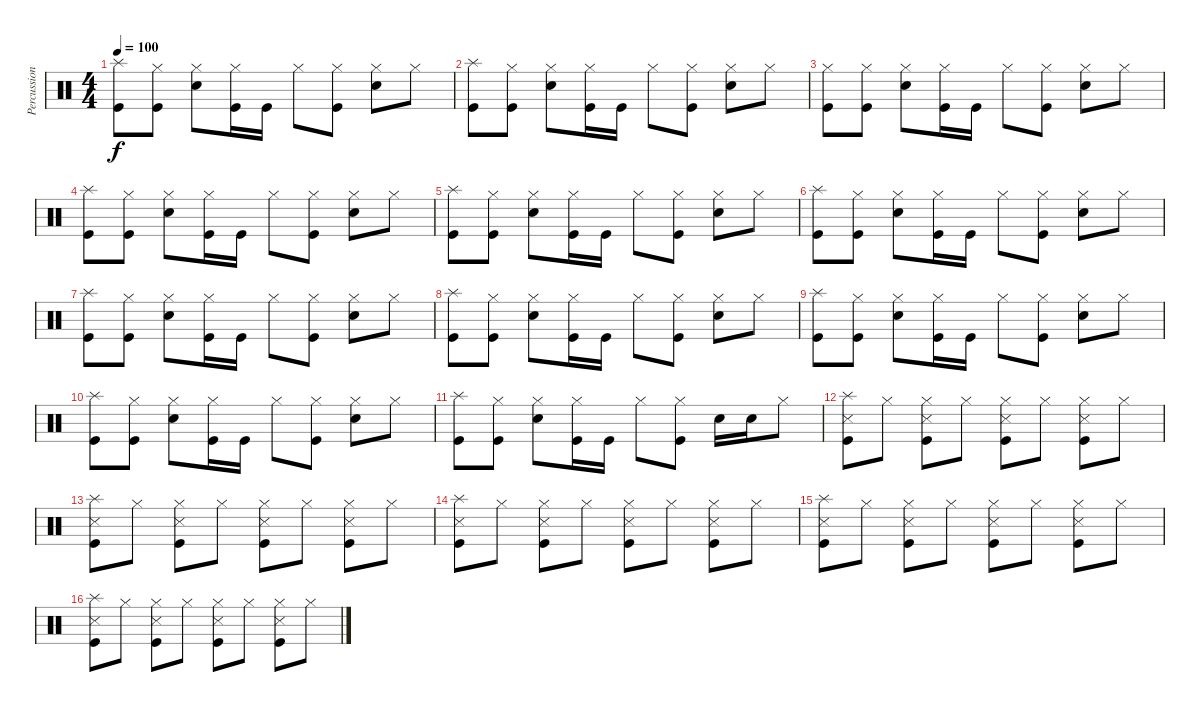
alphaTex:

\track ("Percussions" "Percussion") {instrument percussion}
\staff {score}
\articulation defaults
\ts (4 4)
\tempo 100
\clef neutral
\ks c
("Splash (hit)" "Kick (hit)").8{dy f} ("Hi-Hat (closed)" "Kick (hit)").8 ("Hi-Hat (closed)" "Snare (hit) 2").8 ("Hi-Hat (closed)" "Kick (hit)").16 "Kick (hit)".16 "Hi-Hat (closed)".8 ("Hi-Hat (closed)" "Kick (hit)").8 ("Hi-Hat (closed)" "Snare (hit) 2").8 "Hi-Hat (closed)".8 |
("Splash (hit)" "Kick (hit)").8 ("Hi-Hat (closed)" "Kick (hit)").8 ("Hi-Hat (closed)" "Snare (hit) 2").8 ("Hi-Hat (closed)" "Kick (hit)").16 "Kick (hit)".16 "Hi-Hat (closed)".8 ("Hi-Hat (closed)" "Kick (hit)").8 ("Hi-Hat (closed)" "Snare (hit) 2").8 "Hi-Hat (closed)".8 |
("Hi-Hat (closed)" "Kick (hit)").8 ("Hi-Hat (closed)" "Kick (hit)").8 ("Hi-Hat (closed)" "Snare (hit) 2").8 ("Hi-Hat (closed)" "Kick (hit)").16 "Kick (hit)".16 "Hi-Hat (closed)".8 ("Hi-Hat (closed)" "Kick (hit)").8 ("Hi-Hat (closed)" "Snare (hit) 2").8 "Hi-Hat (closed)".8 |
("Splash (hit)" "Kick (hit)").8 ("Hi-Hat (closed)" "Kick (hit)").8 ("Hi-Hat (closed)" "Snare (hit) 2").8 ("Hi-Hat (closed)" "Kick (hit)").16 "Kick (hit)".16 "Hi-Hat (closed)".8 ("Hi-Hat (closed)" "Kick (hit)").8 ("Hi-Hat (closed)" "Snare (hit) 2").8 "Hi-Hat (closed)".8 |
("Splash (hit)" "Kick (hit)").8 ("Hi-Hat (closed)" "Kick (hit)").8 ("Hi-Hat (closed)" "Snare (hit) 2").8 ("Hi-Hat (closed)" "Kick (hit)").16 "Kick (hit)".16 "Hi-Hat (closed)".8 ("Hi-Hat (closed)" "Kick (hit)").8 ("Hi-Hat (closed)" "Snare (hit) 2").8 "Hi-Hat (closed)".8 |
("Splash (hit)" "Kick (hit)").8 ("Hi-Hat (closed)" "Kick (hit)").8 ("Hi-Hat (closed)" "Snare (hit) 2").8 ("Hi-Hat (closed)" "Kick (hit)").16 "Kick (hit)".16 "Hi-Hat (closed)".8 ("Hi-Hat (closed)" "Kick (hit)").8 ("Hi-Hat (closed)" "Snare (hit) 2").8 "Hi-Hat (closed)".8 |
("Splash (hit)" "Kick (hit)").8 ("Hi-Hat (closed)" "Kick (hit)").8 ("Hi-Hat (closed)" "Snare (hit) 2").8 ("Hi-Hat (closed)" "Kick (hit)").16 "Kick (hit)".16 "Hi-Hat (closed)".8 ("Hi-Hat (closed)" "Kick (hit)").8 ("Hi-Hat (closed)" "Snare (hit) 2").8 "Hi-Hat (closed)".8 |
("Splash (hit)" "Kick (hit)").8 ("Hi-Hat (closed)" "Kick (hit)").8 ("Hi-Hat (closed)" "Snare (hit) 2").8 ("Hi-Hat (closed)" "Kick (hit)").16 "Kick (hit)".16 "Hi-Hat (closed)".8 ("Hi-Hat (closed)" "Kick (hit)").8 ("Hi-Hat (closed)" "Snare (hit) 2").8 "Hi-Hat (closed)".8 |
("Splash (hit)" "Kick (hit)").8 ("Hi-Hat (closed)" "Kick (hit)").8 ("Hi-Hat (closed)" "Snare (hit) 2").8 ("Hi-Hat (closed)" "Kick (hit)").16 "Kick (hit)".16 "Hi-Hat (closed)".8 ("Hi-Hat (closed)" "Kick (hit)").8 ("Hi-Hat (closed)" "Snare (hit) 2").8 "Hi-Hat (closed)".8 |
("Splash (hit)" "Kick (hit)").8 ("Hi-Hat (closed)" "Kick (hit)").8 ("Hi-Hat (closed)" "Snare (hit) 2").8 ("Hi-Hat (closed)" "Kick (hit)").16 "Kick (hit)".16 "Hi-Hat (closed)".8 ("Hi-Hat (closed)" "Kick (hit)").8 ("Hi-Hat (closed)" "Snare (hit) 2").8 "Hi-Hat (closed)".8 |
("Splash (hit)" "Kick (hit)").8 ("Hi-Hat (closed)" "Kick (hit)").8 ("Hi-Hat (closed)" "Snare (hit) 2").8 ("Hi-Hat (closed)" "Kick (hit)").16 "Kick (hit)".16 "Hi-Hat (closed)".8 ("Hi-Hat (closed)" "Kick (hit)").8 "Snare (hit) 2".16 "Snare (hit) 2".16 "Hi-Hat (closed)".8 |
("Splash (hit)" "Snare (side stick) 3" "Kick (hit)").8 "Hi-Hat (closed)".8 ("Hi-Hat (closed)" "Snare (side stick) 3" "Kick (hit)").8 "Hi-Hat (closed)".8 ("Hi-Hat (closed)" "Snare (side stick) 3" "Kick (hit)").8 "Hi-Hat (closed)".8 ("Hi-Hat (closed)" "Snare (side stick) 3" "Kick (hit)").8 "Hi-Hat (closed)".8 |
("Splash (hit)" "Snare (side stick) 3" "Kick (hit)").8 "Hi-Hat (closed)".8 ("Hi-Hat (closed)" "Snare (side stick) 3" "Kick (hit)").8 "Hi-Hat (closed)".8 ("Hi-Hat (closed)" "Snare (side stick) 3" "Kick (hit)").8 "Hi-Hat (closed)".8 ("Hi-Hat (closed)" "Snare (side stick) 3" "Kick (hit)").8 "Hi-Hat (closed)".8 |
("Splash (hit)" "Snare (side stick) 3" "Kick (hit)").8 "Hi-Hat (closed)".8 ("Hi-Hat (closed)" "Snare (side stick) 3" "Kick (hit)").8 "Hi-Hat (closed)".8 ("Hi-Hat (closed)" "Snare (side stick) 3" "Kick (hit)").8 "Hi-Hat (closed)".8 ("Hi-Hat (closed)" "Snare (side stick) 3" "Kick (hit)").8 "Hi-Hat (closed)".8 |
("Splash (hit)" "Snare (side stick) 3" "Kick (hit)").8 "Hi-Hat (closed)".8 ("Hi-Hat (closed)" "Snare (side stick) 3" "Kick (hit)").8 "Hi-Hat (closed)".8 ("Hi-Hat (closed)" "Snare (side stick) 3" "Kick (hit)").8 "Hi-Hat (closed)".8 ("Hi-Hat (closed)" "Snare (side stick) 3" "Kick (hit)").8 "Hi-Hat (closed)".8 |
("Splash (hit)" "Snare (side stick) 3" "Kick (hit)").8 "Hi-Hat (closed)".8 ("Hi-Hat (closed)" "Snare (side stick) 3" "Kick (hit)").8 "Hi-Hat (closed)".8 ("Hi-Hat (closed)" "Snare (side stick) 3" "Kick (hit)").8 "Hi-Hat (closed)".8 ("Hi-Hat (closed)" "Snare (side stick) 3" "Kick (hit)").8 "Hi-Hat (closed)".8
